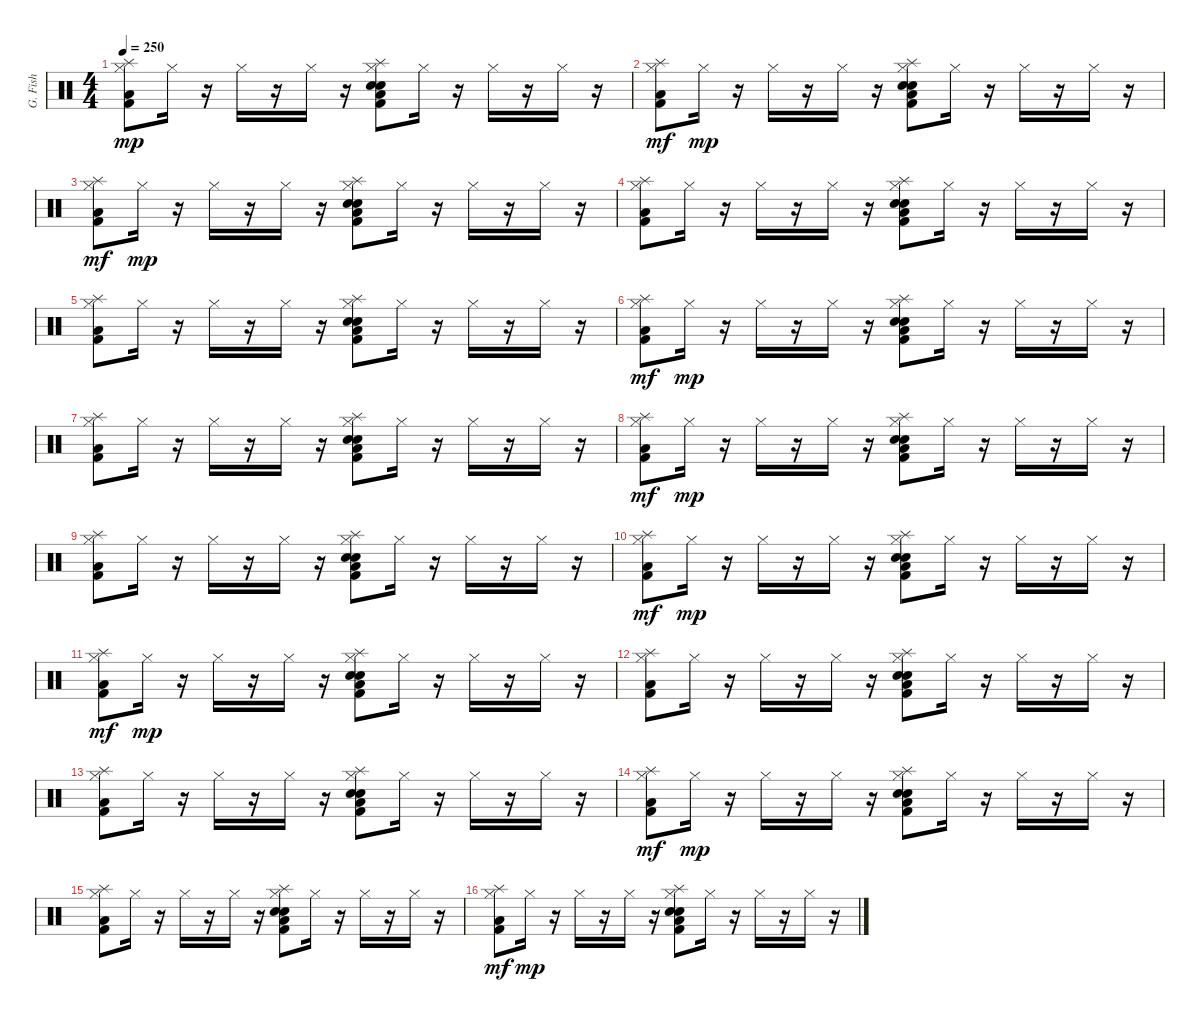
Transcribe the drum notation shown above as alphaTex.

\track ("G. Fish" "G. Fish") {instrument percussion}
\staff {score}
\articulation defaults
\ts (4 4)
\tempo 250
\clef neutral
\ks c
("Kick (hit) 2" "Splash (hit)" "Hi-Hat (closed)" "Low Floor Tom (hit)").8{dy mp} "Hi-Hat (closed)".16 r.16 "Hi-Hat (closed)".16 r.16 "Hi-Hat (closed)".16 r.16 ("Snare (hit) 2" "Kick (hit) 2" "Splash (hit)" "Electric Snare (hit)" "Low Floor Tom (hit)" "Hi-Hat (closed)").8 "Hi-Hat (closed)".16 r.16 "Hi-Hat (closed)".16 r.16 "Hi-Hat (closed)".16 r.16 |
("Hi-Hat (closed)" "Low Floor Tom (hit)" "Kick (hit) 2" "Splash (hit)").8{dy mf} "Hi-Hat (closed)".16{dy mp} r.16 "Hi-Hat (closed)".16 r.16 "Hi-Hat (closed)".16 r.16 ("Snare (hit) 2" "Electric Snare (hit)" "Kick (hit) 2" "Splash (hit)" "Low Floor Tom (hit)" "Hi-Hat (closed)").8 "Hi-Hat (closed)".16 r.16 "Hi-Hat (closed)".16 r.16 "Hi-Hat (closed)".16 r.16 |
("Low Floor Tom (hit)" "Hi-Hat (closed)" "Kick (hit) 2" "Splash (hit)").8{dy mf} "Hi-Hat (closed)".16{dy mp} r.16 "Hi-Hat (closed)".16 r.16 "Hi-Hat (closed)".16 r.16 ("Low Floor Tom (hit)" "Snare (hit) 2" "Electric Snare (hit)" "Kick (hit) 2" "Splash (hit)" "Hi-Hat (closed)").8 "Hi-Hat (closed)".16 r.16 "Hi-Hat (closed)".16 r.16 "Hi-Hat (closed)".16 r.16 |
("Low Floor Tom (hit)" "Kick (hit) 2" "Splash (hit)" "Hi-Hat (closed)").8 "Hi-Hat (closed)".16 r.16 "Hi-Hat (closed)".16 r.16 "Hi-Hat (closed)".16 r.16 ("Snare (hit) 2" "Electric Snare (hit)" "Kick (hit) 2" "Splash (hit)" "Low Floor Tom (hit)" "Hi-Hat (closed)").8 "Hi-Hat (closed)".16 r.16 "Hi-Hat (closed)".16 r.16 "Hi-Hat (closed)".16 r.16 |
("Kick (hit) 2" "Splash (hit)" "Hi-Hat (closed)" "Low Floor Tom (hit)").8 "Hi-Hat (closed)".16 r.16 "Hi-Hat (closed)".16 r.16 "Hi-Hat (closed)".16 r.16 ("Snare (hit) 2" "Kick (hit) 2" "Splash (hit)" "Electric Snare (hit)" "Low Floor Tom (hit)" "Hi-Hat (closed)").8 "Hi-Hat (closed)".16 r.16 "Hi-Hat (closed)".16 r.16 "Hi-Hat (closed)".16 r.16 |
("Hi-Hat (closed)" "Low Floor Tom (hit)" "Kick (hit) 2" "Splash (hit)").8{dy mf} "Hi-Hat (closed)".16{dy mp} r.16 "Hi-Hat (closed)".16 r.16 "Hi-Hat (closed)".16 r.16 ("Snare (hit) 2" "Electric Snare (hit)" "Kick (hit) 2" "Splash (hit)" "Low Floor Tom (hit)" "Hi-Hat (closed)").8 "Hi-Hat (closed)".16 r.16 "Hi-Hat (closed)".16 r.16 "Hi-Hat (closed)".16 r.16 |
("Kick (hit) 2" "Splash (hit)" "Hi-Hat (closed)" "Low Floor Tom (hit)").8 "Hi-Hat (closed)".16 r.16 "Hi-Hat (closed)".16 r.16 "Hi-Hat (closed)".16 r.16 ("Snare (hit) 2" "Kick (hit) 2" "Splash (hit)" "Electric Snare (hit)" "Low Floor Tom (hit)" "Hi-Hat (closed)").8 "Hi-Hat (closed)".16 r.16 "Hi-Hat (closed)".16 r.16 "Hi-Hat (closed)".16 r.16 |
("Hi-Hat (closed)" "Low Floor Tom (hit)" "Kick (hit) 2" "Splash (hit)").8{dy mf} "Hi-Hat (closed)".16{dy mp} r.16 "Hi-Hat (closed)".16 r.16 "Hi-Hat (closed)".16 r.16 ("Snare (hit) 2" "Electric Snare (hit)" "Kick (hit) 2" "Splash (hit)" "Low Floor Tom (hit)" "Hi-Hat (closed)").8 "Hi-Hat (closed)".16 r.16 "Hi-Hat (closed)".16 r.16 "Hi-Hat (closed)".16 r.16 |
("Kick (hit) 2" "Splash (hit)" "Hi-Hat (closed)" "Low Floor Tom (hit)").8 "Hi-Hat (closed)".16 r.16 "Hi-Hat (closed)".16 r.16 "Hi-Hat (closed)".16 r.16 ("Snare (hit) 2" "Kick (hit) 2" "Splash (hit)" "Electric Snare (hit)" "Low Floor Tom (hit)" "Hi-Hat (closed)").8 "Hi-Hat (closed)".16 r.16 "Hi-Hat (closed)".16 r.16 "Hi-Hat (closed)".16 r.16 |
("Hi-Hat (closed)" "Low Floor Tom (hit)" "Kick (hit) 2" "Splash (hit)").8{dy mf} "Hi-Hat (closed)".16{dy mp} r.16 "Hi-Hat (closed)".16 r.16 "Hi-Hat (closed)".16 r.16 ("Snare (hit) 2" "Electric Snare (hit)" "Kick (hit) 2" "Splash (hit)" "Low Floor Tom (hit)" "Hi-Hat (closed)").8 "Hi-Hat (closed)".16 r.16 "Hi-Hat (closed)".16 r.16 "Hi-Hat (closed)".16 r.16 |
("Low Floor Tom (hit)" "Hi-Hat (closed)" "Kick (hit) 2" "Splash (hit)").8{dy mf} "Hi-Hat (closed)".16{dy mp} r.16 "Hi-Hat (closed)".16 r.16 "Hi-Hat (closed)".16 r.16 ("Low Floor Tom (hit)" "Snare (hit) 2" "Electric Snare (hit)" "Kick (hit) 2" "Splash (hit)" "Hi-Hat (closed)").8 "Hi-Hat (closed)".16 r.16 "Hi-Hat (closed)".16 r.16 "Hi-Hat (closed)".16 r.16 |
("Low Floor Tom (hit)" "Kick (hit) 2" "Splash (hit)" "Hi-Hat (closed)").8 "Hi-Hat (closed)".16 r.16 "Hi-Hat (closed)".16 r.16 "Hi-Hat (closed)".16 r.16 ("Snare (hit) 2" "Electric Snare (hit)" "Kick (hit) 2" "Splash (hit)" "Low Floor Tom (hit)" "Hi-Hat (closed)").8 "Hi-Hat (closed)".16 r.16 "Hi-Hat (closed)".16 r.16 "Hi-Hat (closed)".16 r.16 |
("Kick (hit) 2" "Splash (hit)" "Hi-Hat (closed)" "Low Floor Tom (hit)").8 "Hi-Hat (closed)".16 r.16 "Hi-Hat (closed)".16 r.16 "Hi-Hat (closed)".16 r.16 ("Snare (hit) 2" "Kick (hit) 2" "Splash (hit)" "Electric Snare (hit)" "Low Floor Tom (hit)" "Hi-Hat (closed)").8 "Hi-Hat (closed)".16 r.16 "Hi-Hat (closed)".16 r.16 "Hi-Hat (closed)".16 r.16 |
("Hi-Hat (closed)" "Low Floor Tom (hit)" "Kick (hit) 2" "Splash (hit)").8{dy mf} "Hi-Hat (closed)".16{dy mp} r.16 "Hi-Hat (closed)".16 r.16 "Hi-Hat (closed)".16 r.16 ("Snare (hit) 2" "Electric Snare (hit)" "Kick (hit) 2" "Splash (hit)" "Low Floor Tom (hit)" "Hi-Hat (closed)").8 "Hi-Hat (closed)".16 r.16 "Hi-Hat (closed)".16 r.16 "Hi-Hat (closed)".16 r.16 |
("Kick (hit) 2" "Splash (hit)" "Hi-Hat (closed)" "Low Floor Tom (hit)").8 "Hi-Hat (closed)".16 r.16 "Hi-Hat (closed)".16 r.16 "Hi-Hat (closed)".16 r.16 ("Snare (hit) 2" "Kick (hit) 2" "Splash (hit)" "Electric Snare (hit)" "Low Floor Tom (hit)" "Hi-Hat (closed)").8 "Hi-Hat (closed)".16 r.16 "Hi-Hat (closed)".16 r.16 "Hi-Hat (closed)".16 r.16 |
("Hi-Hat (closed)" "Low Floor Tom (hit)" "Kick (hit) 2" "Splash (hit)").8{dy mf} "Hi-Hat (closed)".16{dy mp} r.16 "Hi-Hat (closed)".16 r.16 "Hi-Hat (closed)".16 r.16 ("Snare (hit) 2" "Electric Snare (hit)" "Kick (hit) 2" "Splash (hit)" "Low Floor Tom (hit)" "Hi-Hat (closed)").8 "Hi-Hat (closed)".16 r.16 "Hi-Hat (closed)".16 r.16 "Hi-Hat (closed)".16 r.16
